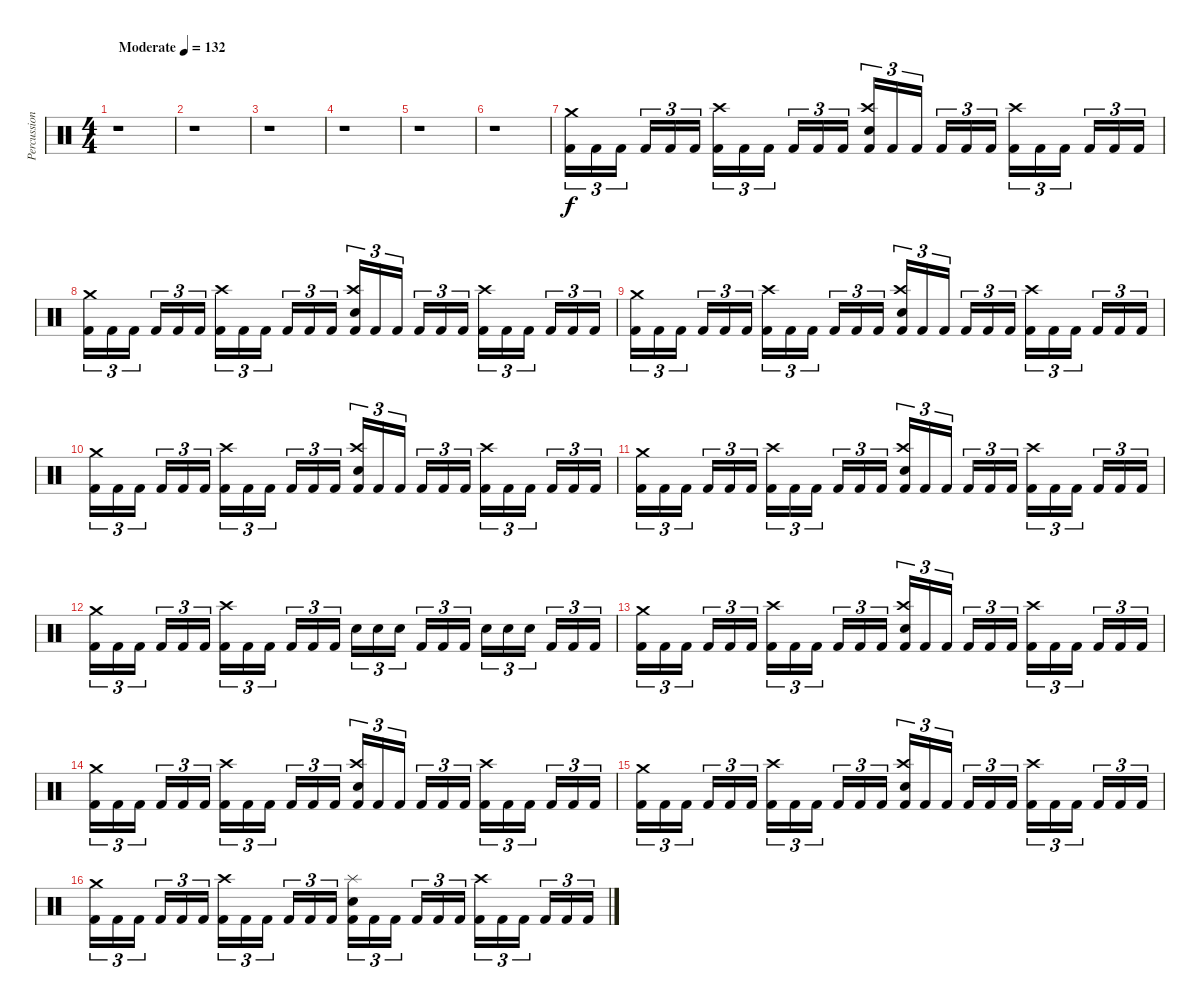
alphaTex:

\track ("Percussion" "Percussion") {instrument percussion}
\staff {score}
\articulation defaults
\ts (4 4)
\tempo (132 "Moderate")
\clef neutral
\ks c
r.1{dy f volume 0} |
r.1 |
r.1 |
r.1 |
r.1 |
r.1 |
("Crash medium (hit)" "Kick (hit) 2").16{tu (3 2) volume 7} "Kick (hit) 2".16{tu (3 2)} "Kick (hit) 2".16{tu (3 2) beam splitsecondary} "Kick (hit) 2".16{tu (3 2)} "Kick (hit) 2".16{tu (3 2)} "Kick (hit) 2".16{tu (3 2)} ("Crash high (hit)" "Kick (hit) 2").16{tu (3 2)} "Kick (hit) 2".16{tu (3 2)} "Kick (hit) 2".16{tu (3 2) beam splitsecondary} "Kick (hit) 2".16{tu (3 2)} "Kick (hit) 2".16{tu (3 2)} "Kick (hit) 2".16{tu (3 2)} ("Crash high (hit)" "Snare (hit) 2" "Kick (hit) 2").16{tu (3 2)} "Kick (hit) 2".16{tu (3 2)} "Kick (hit) 2".16{tu (3 2) beam splitsecondary} "Kick (hit) 2".16{tu (3 2)} "Kick (hit) 2".16{tu (3 2)} "Kick (hit) 2".16{tu (3 2)} ("Crash high (hit)" "Kick (hit) 2").16{tu (3 2)} "Kick (hit) 2".16{tu (3 2)} "Kick (hit) 2".16{tu (3 2) beam splitsecondary} "Kick (hit) 2".16{tu (3 2)} "Kick (hit) 2".16{tu (3 2)} "Kick (hit) 2".16{tu (3 2)} |
("Crash medium (hit)" "Kick (hit) 2").16{tu (3 2)} "Kick (hit) 2".16{tu (3 2)} "Kick (hit) 2".16{tu (3 2) beam splitsecondary} "Kick (hit) 2".16{tu (3 2)} "Kick (hit) 2".16{tu (3 2)} "Kick (hit) 2".16{tu (3 2)} ("Crash high (hit)" "Kick (hit) 2").16{tu (3 2)} "Kick (hit) 2".16{tu (3 2)} "Kick (hit) 2".16{tu (3 2) beam splitsecondary} "Kick (hit) 2".16{tu (3 2)} "Kick (hit) 2".16{tu (3 2)} "Kick (hit) 2".16{tu (3 2)} ("Crash high (hit)" "Snare (hit) 2" "Kick (hit) 2").16{tu (3 2)} "Kick (hit) 2".16{tu (3 2)} "Kick (hit) 2".16{tu (3 2) beam splitsecondary} "Kick (hit) 2".16{tu (3 2)} "Kick (hit) 2".16{tu (3 2)} "Kick (hit) 2".16{tu (3 2)} ("Crash high (hit)" "Kick (hit) 2").16{tu (3 2)} "Kick (hit) 2".16{tu (3 2)} "Kick (hit) 2".16{tu (3 2) beam splitsecondary} "Kick (hit) 2".16{tu (3 2)} "Kick (hit) 2".16{tu (3 2)} "Kick (hit) 2".16{tu (3 2)} |
("Crash medium (hit)" "Kick (hit) 2").16{tu (3 2)} "Kick (hit) 2".16{tu (3 2)} "Kick (hit) 2".16{tu (3 2) beam splitsecondary} "Kick (hit) 2".16{tu (3 2)} "Kick (hit) 2".16{tu (3 2)} "Kick (hit) 2".16{tu (3 2)} ("Crash high (hit)" "Kick (hit) 2").16{tu (3 2)} "Kick (hit) 2".16{tu (3 2)} "Kick (hit) 2".16{tu (3 2) beam splitsecondary} "Kick (hit) 2".16{tu (3 2)} "Kick (hit) 2".16{tu (3 2)} "Kick (hit) 2".16{tu (3 2)} ("Crash high (hit)" "Snare (hit) 2" "Kick (hit) 2").16{tu (3 2)} "Kick (hit) 2".16{tu (3 2)} "Kick (hit) 2".16{tu (3 2) beam splitsecondary} "Kick (hit) 2".16{tu (3 2)} "Kick (hit) 2".16{tu (3 2)} "Kick (hit) 2".16{tu (3 2)} ("Crash high (hit)" "Kick (hit) 2").16{tu (3 2)} "Kick (hit) 2".16{tu (3 2)} "Kick (hit) 2".16{tu (3 2) beam splitsecondary} "Kick (hit) 2".16{tu (3 2)} "Kick (hit) 2".16{tu (3 2)} "Kick (hit) 2".16{tu (3 2)} |
("Crash medium (hit)" "Kick (hit) 2").16{tu (3 2)} "Kick (hit) 2".16{tu (3 2)} "Kick (hit) 2".16{tu (3 2) beam splitsecondary} "Kick (hit) 2".16{tu (3 2)} "Kick (hit) 2".16{tu (3 2)} "Kick (hit) 2".16{tu (3 2)} ("Crash high (hit)" "Kick (hit) 2").16{tu (3 2)} "Kick (hit) 2".16{tu (3 2)} "Kick (hit) 2".16{tu (3 2) beam splitsecondary} "Kick (hit) 2".16{tu (3 2)} "Kick (hit) 2".16{tu (3 2)} "Kick (hit) 2".16{tu (3 2)} ("Crash high (hit)" "Snare (hit) 2" "Kick (hit) 2").16{tu (3 2)} "Kick (hit) 2".16{tu (3 2)} "Kick (hit) 2".16{tu (3 2) beam splitsecondary} "Kick (hit) 2".16{tu (3 2)} "Kick (hit) 2".16{tu (3 2)} "Kick (hit) 2".16{tu (3 2)} ("Crash high (hit)" "Kick (hit) 2").16{tu (3 2)} "Kick (hit) 2".16{tu (3 2)} "Kick (hit) 2".16{tu (3 2) beam splitsecondary} "Kick (hit) 2".16{tu (3 2)} "Kick (hit) 2".16{tu (3 2)} "Kick (hit) 2".16{tu (3 2)} |
("Crash medium (hit)" "Kick (hit) 2").16{tu (3 2) volume 13} "Kick (hit) 2".16{tu (3 2)} "Kick (hit) 2".16{tu (3 2) beam splitsecondary} "Kick (hit) 2".16{tu (3 2)} "Kick (hit) 2".16{tu (3 2)} "Kick (hit) 2".16{tu (3 2)} ("Crash high (hit)" "Kick (hit) 2").16{tu (3 2)} "Kick (hit) 2".16{tu (3 2)} "Kick (hit) 2".16{tu (3 2) beam splitsecondary} "Kick (hit) 2".16{tu (3 2)} "Kick (hit) 2".16{tu (3 2)} "Kick (hit) 2".16{tu (3 2)} ("Crash high (hit)" "Snare (hit) 2" "Kick (hit) 2").16{tu (3 2)} "Kick (hit) 2".16{tu (3 2)} "Kick (hit) 2".16{tu (3 2) beam splitsecondary} "Kick (hit) 2".16{tu (3 2)} "Kick (hit) 2".16{tu (3 2)} "Kick (hit) 2".16{tu (3 2)} ("Crash high (hit)" "Kick (hit) 2").16{tu (3 2)} "Kick (hit) 2".16{tu (3 2)} "Kick (hit) 2".16{tu (3 2) beam splitsecondary} "Kick (hit) 2".16{tu (3 2)} "Kick (hit) 2".16{tu (3 2)} "Kick (hit) 2".16{tu (3 2)} |
("Crash medium (hit)" "Kick (hit) 2").16{tu (3 2)} "Kick (hit) 2".16{tu (3 2)} "Kick (hit) 2".16{tu (3 2) beam splitsecondary} "Kick (hit) 2".16{tu (3 2)} "Kick (hit) 2".16{tu (3 2)} "Kick (hit) 2".16{tu (3 2)} ("Crash high (hit)" "Kick (hit) 2").16{tu (3 2)} "Kick (hit) 2".16{tu (3 2)} "Kick (hit) 2".16{tu (3 2) beam splitsecondary} "Kick (hit) 2".16{tu (3 2)} "Kick (hit) 2".16{tu (3 2)} "Kick (hit) 2".16{tu (3 2)} "Snare (hit) 2".16{tu (3 2)} "Snare (hit) 2".16{tu (3 2)} "Snare (hit) 2".16{tu (3 2) beam splitsecondary} "Kick (hit) 2".16{tu (3 2)} "Kick (hit) 2".16{tu (3 2)} "Kick (hit) 2".16{tu (3 2)} "Snare (hit) 2".16{tu (3 2)} "Snare (hit) 2".16{tu (3 2)} "Snare (hit) 2".16{tu (3 2) beam splitsecondary} "Kick (hit) 2".16{tu (3 2)} "Kick (hit) 2".16{tu (3 2)} "Kick (hit) 2".16{tu (3 2)} |
("Crash medium (hit)" "Kick (hit) 2").16{tu (3 2)} "Kick (hit) 2".16{tu (3 2)} "Kick (hit) 2".16{tu (3 2) beam splitsecondary} "Kick (hit) 2".16{tu (3 2)} "Kick (hit) 2".16{tu (3 2)} "Kick (hit) 2".16{tu (3 2)} ("Crash high (hit)" "Kick (hit) 2").16{tu (3 2)} "Kick (hit) 2".16{tu (3 2)} "Kick (hit) 2".16{tu (3 2) beam splitsecondary} "Kick (hit) 2".16{tu (3 2)} "Kick (hit) 2".16{tu (3 2)} "Kick (hit) 2".16{tu (3 2)} ("Crash high (hit)" "Snare (hit) 2" "Kick (hit) 2").16{tu (3 2)} "Kick (hit) 2".16{tu (3 2)} "Kick (hit) 2".16{tu (3 2) beam splitsecondary} "Kick (hit) 2".16{tu (3 2)} "Kick (hit) 2".16{tu (3 2)} "Kick (hit) 2".16{tu (3 2)} ("Crash high (hit)" "Kick (hit) 2").16{tu (3 2)} "Kick (hit) 2".16{tu (3 2)} "Kick (hit) 2".16{tu (3 2) beam splitsecondary} "Kick (hit) 2".16{tu (3 2)} "Kick (hit) 2".16{tu (3 2)} "Kick (hit) 2".16{tu (3 2)} |
("Crash medium (hit)" "Kick (hit) 2").16{tu (3 2)} "Kick (hit) 2".16{tu (3 2)} "Kick (hit) 2".16{tu (3 2) beam splitsecondary} "Kick (hit) 2".16{tu (3 2)} "Kick (hit) 2".16{tu (3 2)} "Kick (hit) 2".16{tu (3 2)} ("Crash high (hit)" "Kick (hit) 2").16{tu (3 2)} "Kick (hit) 2".16{tu (3 2)} "Kick (hit) 2".16{tu (3 2) beam splitsecondary} "Kick (hit) 2".16{tu (3 2)} "Kick (hit) 2".16{tu (3 2)} "Kick (hit) 2".16{tu (3 2)} ("Crash high (hit)" "Snare (hit) 2" "Kick (hit) 2").16{tu (3 2)} "Kick (hit) 2".16{tu (3 2)} "Kick (hit) 2".16{tu (3 2) beam splitsecondary} "Kick (hit) 2".16{tu (3 2)} "Kick (hit) 2".16{tu (3 2)} "Kick (hit) 2".16{tu (3 2)} ("Crash high (hit)" "Kick (hit) 2").16{tu (3 2)} "Kick (hit) 2".16{tu (3 2)} "Kick (hit) 2".16{tu (3 2) beam splitsecondary} "Kick (hit) 2".16{tu (3 2)} "Kick (hit) 2".16{tu (3 2)} "Kick (hit) 2".16{tu (3 2)} |
("Crash medium (hit)" "Kick (hit) 2").16{tu (3 2) volume 16} "Kick (hit) 2".16{tu (3 2)} "Kick (hit) 2".16{tu (3 2) beam splitsecondary} "Kick (hit) 2".16{tu (3 2)} "Kick (hit) 2".16{tu (3 2)} "Kick (hit) 2".16{tu (3 2)} ("Crash high (hit)" "Kick (hit) 2").16{tu (3 2)} "Kick (hit) 2".16{tu (3 2)} "Kick (hit) 2".16{tu (3 2) beam splitsecondary} "Kick (hit) 2".16{tu (3 2)} "Kick (hit) 2".16{tu (3 2)} "Kick (hit) 2".16{tu (3 2)} ("Crash high (hit)" "Snare (hit) 2" "Kick (hit) 2").16{tu (3 2)} "Kick (hit) 2".16{tu (3 2)} "Kick (hit) 2".16{tu (3 2) beam splitsecondary} "Kick (hit) 2".16{tu (3 2)} "Kick (hit) 2".16{tu (3 2)} "Kick (hit) 2".16{tu (3 2)} ("Crash high (hit)" "Kick (hit) 2").16{tu (3 2)} "Kick (hit) 2".16{tu (3 2)} "Kick (hit) 2".16{tu (3 2) beam splitsecondary} "Kick (hit) 2".16{tu (3 2)} "Kick (hit) 2".16{tu (3 2)} "Kick (hit) 2".16{tu (3 2)} |
("Crash medium (hit)" "Kick (hit) 2").16{tu (3 2)} "Kick (hit) 2".16{tu (3 2)} "Kick (hit) 2".16{tu (3 2) beam splitsecondary} "Kick (hit) 2".16{tu (3 2)} "Kick (hit) 2".16{tu (3 2)} "Kick (hit) 2".16{tu (3 2)} ("Crash high (hit)" "Kick (hit) 2").16{tu (3 2)} "Kick (hit) 2".16{tu (3 2)} "Kick (hit) 2".16{tu (3 2) beam splitsecondary} "Kick (hit) 2".16{tu (3 2)} "Kick (hit) 2".16{tu (3 2)} "Kick (hit) 2".16{tu (3 2)} ("Splash (hit)" "Snare (hit) 2" "Kick (hit) 2").16{tu (3 2)} "Kick (hit) 2".16{tu (3 2)} "Kick (hit) 2".16{tu (3 2) beam splitsecondary} "Kick (hit) 2".16{tu (3 2)} "Kick (hit) 2".16{tu (3 2)} "Kick (hit) 2".16{tu (3 2)} ("Crash high (hit)" "Kick (hit) 2").16{tu (3 2)} "Kick (hit) 2".16{tu (3 2)} "Kick (hit) 2".16{tu (3 2) beam splitsecondary} "Kick (hit) 2".16{tu (3 2)} "Kick (hit) 2".16{tu (3 2)} "Kick (hit) 2".16{tu (3 2)}
